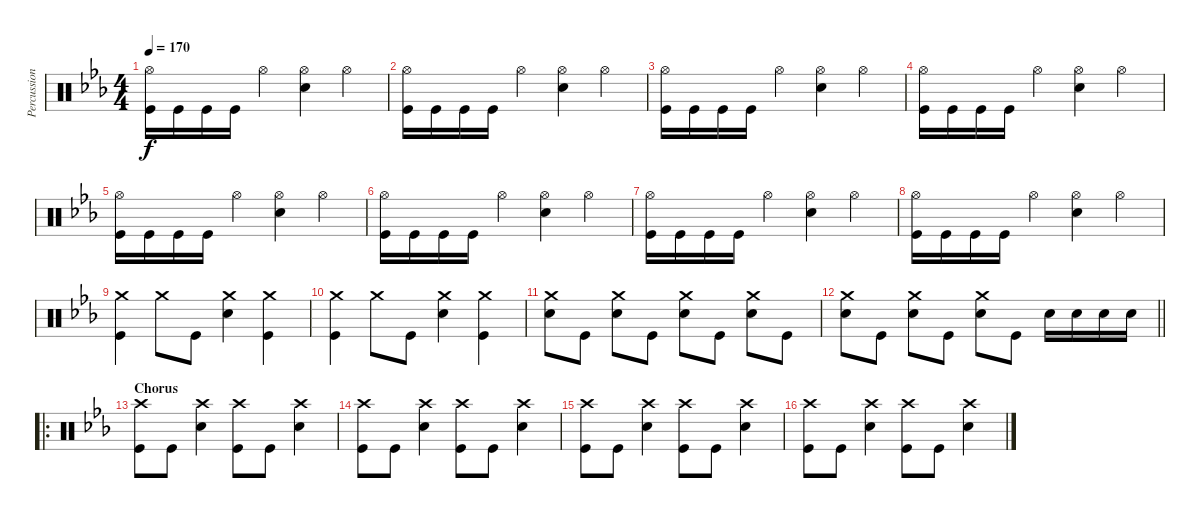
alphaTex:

\track ("Percussion" "Percussion") {instrument percussion}
\staff {score}
\articulation defaults
\ts (4 4)
\tempo 170
\clef neutral
\ks cminor
("Hi-Hat (open)" "Kick (hit)").16{dy f} "Kick (hit)".16 "Kick (hit)".16 "Kick (hit)".16 "Hi-Hat (open)".4 ("Hi-Hat (open)" "Snare (hit) 2").4 "Hi-Hat (open)".4 |
("Hi-Hat (open)" "Kick (hit)").16 "Kick (hit)".16 "Kick (hit)".16 "Kick (hit)".16 "Hi-Hat (open)".4 ("Hi-Hat (open)" "Snare (hit) 2").4 "Hi-Hat (open)".4 |
("Hi-Hat (open)" "Kick (hit)").16 "Kick (hit)".16 "Kick (hit)".16 "Kick (hit)".16 "Hi-Hat (open)".4 ("Hi-Hat (open)" "Snare (hit) 2").4 "Hi-Hat (open)".4 |
("Hi-Hat (open)" "Kick (hit)").16 "Kick (hit)".16 "Kick (hit)".16 "Kick (hit)".16 "Hi-Hat (open)".4 ("Hi-Hat (open)" "Snare (hit) 2").4 "Hi-Hat (open)".4 |
("Hi-Hat (open)" "Kick (hit)").16 "Kick (hit)".16 "Kick (hit)".16 "Kick (hit)".16 "Hi-Hat (open)".4 ("Hi-Hat (open)" "Snare (hit) 2").4 "Hi-Hat (open)".4 |
("Hi-Hat (open)" "Kick (hit)").16 "Kick (hit)".16 "Kick (hit)".16 "Kick (hit)".16 "Hi-Hat (open)".4 ("Hi-Hat (open)" "Snare (hit) 2").4 "Hi-Hat (open)".4 |
("Hi-Hat (open)" "Kick (hit)").16 "Kick (hit)".16 "Kick (hit)".16 "Kick (hit)".16 "Hi-Hat (open)".4 ("Hi-Hat (open)" "Snare (hit) 2").4 "Hi-Hat (open)".4 |
("Hi-Hat (open)" "Kick (hit)").16 "Kick (hit)".16 "Kick (hit)".16 "Kick (hit)".16 "Hi-Hat (open)".4 ("Hi-Hat (open)" "Snare (hit) 2").4 "Hi-Hat (open)".4 |
("Crash medium (hit)" "Kick (hit)").4 "Crash medium (hit)".8 "Kick (hit)".8 ("Crash medium (hit)" "Snare (hit) 2").4 ("Crash medium (hit)" "Kick (hit)").4 |
("Crash medium (hit)" "Kick (hit)").4 "Crash medium (hit)".8 "Kick (hit)".8 ("Crash medium (hit)" "Snare (hit) 2").4 ("Crash medium (hit)" "Kick (hit)").4 |
("Crash medium (hit)" "Snare (hit) 2").8 "Kick (hit)".8 ("Crash medium (hit)" "Snare (hit) 2").8 "Kick (hit)".8 ("Crash medium (hit)" "Snare (hit) 2").8 "Kick (hit)".8 ("Crash medium (hit)" "Snare (hit) 2").8 "Kick (hit)".8 |
\barLineRight lightlight
("Crash medium (hit)" "Snare (hit) 2").8 "Kick (hit)".8 ("Crash medium (hit)" "Snare (hit) 2").8 "Kick (hit)".8 ("Crash medium (hit)" "Snare (hit) 2").8 "Kick (hit)".8 "Snare (hit) 2".16 "Snare (hit) 2".16 "Snare (hit) 2".16 "Snare (hit) 2".16 |
\ro
\section ("" "Chorus")
("Crash high (hit)" "Kick (hit)").8 "Kick (hit)".8 ("Crash high (hit)" "Snare (hit) 2").4 ("Crash high (hit)" "Kick (hit)").8 "Kick (hit)".8 ("Crash high (hit)" "Snare (hit) 2").4 |
("Crash high (hit)" "Kick (hit)").8 "Kick (hit)".8 ("Crash high (hit)" "Snare (hit) 2").4 ("Crash high (hit)" "Kick (hit)").8 "Kick (hit)".8 ("Crash high (hit)" "Snare (hit) 2").4 |
("Crash high (hit)" "Kick (hit)").8 "Kick (hit)".8 ("Crash high (hit)" "Snare (hit) 2").4 ("Crash high (hit)" "Kick (hit)").8 "Kick (hit)".8 ("Crash high (hit)" "Snare (hit) 2").4 |
("Crash high (hit)" "Kick (hit)").8 "Kick (hit)".8 ("Crash high (hit)" "Snare (hit) 2").4 ("Crash high (hit)" "Kick (hit)").8 "Kick (hit)".8 ("Crash high (hit)" "Snare (hit) 2").4
